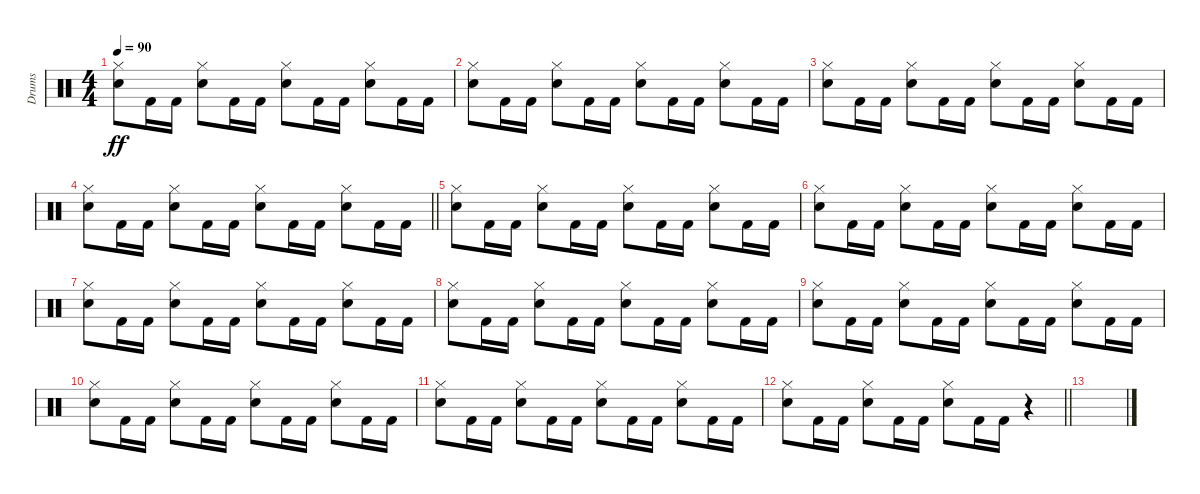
\track ("Drums" "Drums") {instrument percussion}
\staff {score}
\articulation defaults
\ts (4 4)
\tempo 90
\clef neutral
\ks c
("Hi-Hat (closed)" "Snare (hit) 2").8{dy ff} "Kick (hit) 2".16 "Kick (hit) 2".16 ("Hi-Hat (closed)" "Snare (hit) 2").8 "Kick (hit) 2".16 "Kick (hit) 2".16 ("Hi-Hat (closed)" "Snare (hit) 2").8 "Kick (hit) 2".16 "Kick (hit) 2".16 ("Hi-Hat (closed)" "Snare (hit) 2").8 "Kick (hit) 2".16 "Kick (hit) 2".16 |
("Hi-Hat (closed)" "Snare (hit) 2").8 "Kick (hit) 2".16 "Kick (hit) 2".16 ("Hi-Hat (closed)" "Snare (hit) 2").8 "Kick (hit) 2".16 "Kick (hit) 2".16 ("Hi-Hat (closed)" "Snare (hit) 2").8 "Kick (hit) 2".16 "Kick (hit) 2".16 ("Hi-Hat (closed)" "Snare (hit) 2").8 "Kick (hit) 2".16 "Kick (hit) 2".16 |
("Hi-Hat (closed)" "Snare (hit) 2").8 "Kick (hit) 2".16 "Kick (hit) 2".16 ("Hi-Hat (closed)" "Snare (hit) 2").8 "Kick (hit) 2".16 "Kick (hit) 2".16 ("Hi-Hat (closed)" "Snare (hit) 2").8 "Kick (hit) 2".16 "Kick (hit) 2".16 ("Hi-Hat (closed)" "Snare (hit) 2").8 "Kick (hit) 2".16 "Kick (hit) 2".16 |
\barLineRight lightlight
("Hi-Hat (closed)" "Snare (hit) 2").8 "Kick (hit) 2".16 "Kick (hit) 2".16 ("Hi-Hat (closed)" "Snare (hit) 2").8 "Kick (hit) 2".16 "Kick (hit) 2".16 ("Hi-Hat (closed)" "Snare (hit) 2").8 "Kick (hit) 2".16 "Kick (hit) 2".16 ("Hi-Hat (closed)" "Snare (hit) 2").8 "Kick (hit) 2".16 "Kick (hit) 2".16 |
\section ("" "")
("Hi-Hat (closed)" "Snare (hit) 2").8 "Kick (hit) 2".16 "Kick (hit) 2".16 ("Hi-Hat (closed)" "Snare (hit) 2").8 "Kick (hit) 2".16 "Kick (hit) 2".16 ("Hi-Hat (closed)" "Snare (hit) 2").8 "Kick (hit) 2".16 "Kick (hit) 2".16 ("Hi-Hat (closed)" "Snare (hit) 2").8 "Kick (hit) 2".16 "Kick (hit) 2".16 |
("Hi-Hat (closed)" "Snare (hit) 2").8 "Kick (hit) 2".16 "Kick (hit) 2".16 ("Hi-Hat (closed)" "Snare (hit) 2").8 "Kick (hit) 2".16 "Kick (hit) 2".16 ("Hi-Hat (closed)" "Snare (hit) 2").8 "Kick (hit) 2".16 "Kick (hit) 2".16 ("Hi-Hat (closed)" "Snare (hit) 2").8 "Kick (hit) 2".16 "Kick (hit) 2".16 |
("Hi-Hat (closed)" "Snare (hit) 2").8 "Kick (hit) 2".16 "Kick (hit) 2".16 ("Hi-Hat (closed)" "Snare (hit) 2").8 "Kick (hit) 2".16 "Kick (hit) 2".16 ("Hi-Hat (closed)" "Snare (hit) 2").8 "Kick (hit) 2".16 "Kick (hit) 2".16 ("Hi-Hat (closed)" "Snare (hit) 2").8 "Kick (hit) 2".16 "Kick (hit) 2".16 |
("Hi-Hat (closed)" "Snare (hit) 2").8 "Kick (hit) 2".16 "Kick (hit) 2".16 ("Hi-Hat (closed)" "Snare (hit) 2").8 "Kick (hit) 2".16 "Kick (hit) 2".16 ("Hi-Hat (closed)" "Snare (hit) 2").8 "Kick (hit) 2".16 "Kick (hit) 2".16 ("Hi-Hat (closed)" "Snare (hit) 2").8 "Kick (hit) 2".16 "Kick (hit) 2".16 |
("Hi-Hat (closed)" "Snare (hit) 2").8 "Kick (hit) 2".16 "Kick (hit) 2".16 ("Hi-Hat (closed)" "Snare (hit) 2").8 "Kick (hit) 2".16 "Kick (hit) 2".16 ("Hi-Hat (closed)" "Snare (hit) 2").8 "Kick (hit) 2".16 "Kick (hit) 2".16 ("Hi-Hat (closed)" "Snare (hit) 2").8 "Kick (hit) 2".16 "Kick (hit) 2".16 |
("Hi-Hat (closed)" "Snare (hit) 2").8 "Kick (hit) 2".16 "Kick (hit) 2".16 ("Hi-Hat (closed)" "Snare (hit) 2").8 "Kick (hit) 2".16 "Kick (hit) 2".16 ("Hi-Hat (closed)" "Snare (hit) 2").8 "Kick (hit) 2".16 "Kick (hit) 2".16 ("Hi-Hat (closed)" "Snare (hit) 2").8 "Kick (hit) 2".16 "Kick (hit) 2".16 |
("Hi-Hat (closed)" "Snare (hit) 2").8 "Kick (hit) 2".16 "Kick (hit) 2".16 ("Hi-Hat (closed)" "Snare (hit) 2").8 "Kick (hit) 2".16 "Kick (hit) 2".16 ("Hi-Hat (closed)" "Snare (hit) 2").8 "Kick (hit) 2".16 "Kick (hit) 2".16 ("Hi-Hat (closed)" "Snare (hit) 2").8 "Kick (hit) 2".16 "Kick (hit) 2".16 |
\barLineRight lightlight
("Hi-Hat (closed)" "Snare (hit) 2").8 "Kick (hit) 2".16 "Kick (hit) 2".16 ("Hi-Hat (closed)" "Snare (hit) 2").8 "Kick (hit) 2".16 "Kick (hit) 2".16 ("Hi-Hat (closed)" "Snare (hit) 2").8 "Kick (hit) 2".16 "Kick (hit) 2".16 r.4 |
\section ("" "")
